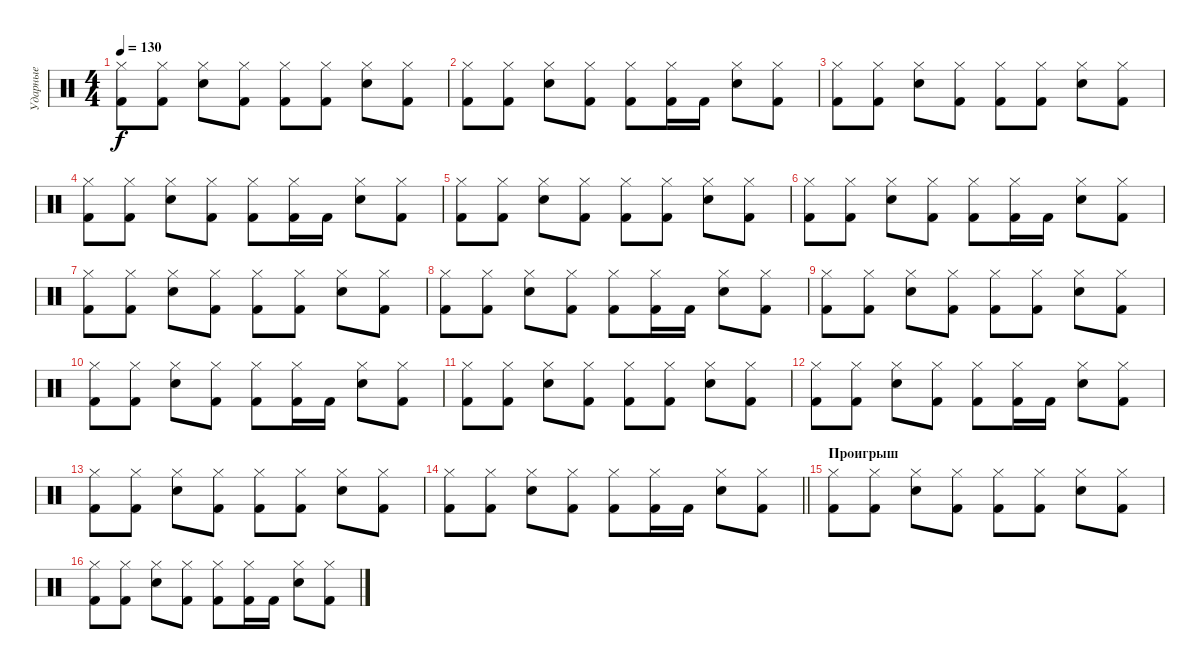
\track ("Ударные" "Ударные") {instrument percussion}
\staff {score}
\articulation defaults
\ts (4 4)
\tempo 130
\clef neutral
\ks c
("Hi-Hat (closed)" "Kick (hit) 2").8{dy f} ("Hi-Hat (closed)" "Kick (hit) 2").8 ("Hi-Hat (closed)" "Snare (hit) 2").8 ("Hi-Hat (closed)" "Kick (hit) 2").8 ("Hi-Hat (closed)" "Kick (hit) 2").8 ("Hi-Hat (closed)" "Kick (hit) 2").8 ("Hi-Hat (closed)" "Snare (hit) 2").8 ("Hi-Hat (closed)" "Kick (hit) 2").8 |
("Hi-Hat (closed)" "Kick (hit) 2").8 ("Hi-Hat (closed)" "Kick (hit) 2").8 ("Hi-Hat (closed)" "Snare (hit) 2").8 ("Hi-Hat (closed)" "Kick (hit) 2").8 ("Hi-Hat (closed)" "Kick (hit) 2").8 ("Hi-Hat (closed)" "Kick (hit) 2").16 "Kick (hit) 2".16 ("Hi-Hat (closed)" "Snare (hit) 2").8 ("Hi-Hat (closed)" "Kick (hit) 2").8 |
("Hi-Hat (closed)" "Kick (hit) 2").8 ("Hi-Hat (closed)" "Kick (hit) 2").8 ("Hi-Hat (closed)" "Snare (hit) 2").8 ("Hi-Hat (closed)" "Kick (hit) 2").8 ("Hi-Hat (closed)" "Kick (hit) 2").8 ("Hi-Hat (closed)" "Kick (hit) 2").8 ("Hi-Hat (closed)" "Snare (hit) 2").8 ("Hi-Hat (closed)" "Kick (hit) 2").8 |
("Hi-Hat (closed)" "Kick (hit) 2").8 ("Hi-Hat (closed)" "Kick (hit) 2").8 ("Hi-Hat (closed)" "Snare (hit) 2").8 ("Hi-Hat (closed)" "Kick (hit) 2").8 ("Hi-Hat (closed)" "Kick (hit) 2").8 ("Hi-Hat (closed)" "Kick (hit) 2").16 "Kick (hit) 2".16 ("Hi-Hat (closed)" "Snare (hit) 2").8 ("Hi-Hat (closed)" "Kick (hit) 2").8 |
("Hi-Hat (closed)" "Kick (hit) 2").8 ("Hi-Hat (closed)" "Kick (hit) 2").8 ("Hi-Hat (closed)" "Snare (hit) 2").8 ("Hi-Hat (closed)" "Kick (hit) 2").8 ("Hi-Hat (closed)" "Kick (hit) 2").8 ("Hi-Hat (closed)" "Kick (hit) 2").8 ("Hi-Hat (closed)" "Snare (hit) 2").8 ("Hi-Hat (closed)" "Kick (hit) 2").8 |
("Hi-Hat (closed)" "Kick (hit) 2").8 ("Hi-Hat (closed)" "Kick (hit) 2").8 ("Hi-Hat (closed)" "Snare (hit) 2").8 ("Hi-Hat (closed)" "Kick (hit) 2").8 ("Hi-Hat (closed)" "Kick (hit) 2").8 ("Hi-Hat (closed)" "Kick (hit) 2").16 "Kick (hit) 2".16 ("Hi-Hat (closed)" "Snare (hit) 2").8 ("Hi-Hat (closed)" "Kick (hit) 2").8 |
("Hi-Hat (closed)" "Kick (hit) 2").8 ("Hi-Hat (closed)" "Kick (hit) 2").8 ("Hi-Hat (closed)" "Snare (hit) 2").8 ("Hi-Hat (closed)" "Kick (hit) 2").8 ("Hi-Hat (closed)" "Kick (hit) 2").8 ("Hi-Hat (closed)" "Kick (hit) 2").8 ("Hi-Hat (closed)" "Snare (hit) 2").8 ("Hi-Hat (closed)" "Kick (hit) 2").8 |
("Hi-Hat (closed)" "Kick (hit) 2").8 ("Hi-Hat (closed)" "Kick (hit) 2").8 ("Hi-Hat (closed)" "Snare (hit) 2").8 ("Hi-Hat (closed)" "Kick (hit) 2").8 ("Hi-Hat (closed)" "Kick (hit) 2").8 ("Hi-Hat (closed)" "Kick (hit) 2").16 "Kick (hit) 2".16 ("Hi-Hat (closed)" "Snare (hit) 2").8 ("Hi-Hat (closed)" "Kick (hit) 2").8 |
("Hi-Hat (closed)" "Kick (hit) 2").8 ("Hi-Hat (closed)" "Kick (hit) 2").8 ("Hi-Hat (closed)" "Snare (hit) 2").8 ("Hi-Hat (closed)" "Kick (hit) 2").8 ("Hi-Hat (closed)" "Kick (hit) 2").8 ("Hi-Hat (closed)" "Kick (hit) 2").8 ("Hi-Hat (closed)" "Snare (hit) 2").8 ("Hi-Hat (closed)" "Kick (hit) 2").8 |
("Hi-Hat (closed)" "Kick (hit) 2").8 ("Hi-Hat (closed)" "Kick (hit) 2").8 ("Hi-Hat (closed)" "Snare (hit) 2").8 ("Hi-Hat (closed)" "Kick (hit) 2").8 ("Hi-Hat (closed)" "Kick (hit) 2").8 ("Hi-Hat (closed)" "Kick (hit) 2").16 "Kick (hit) 2".16 ("Hi-Hat (closed)" "Snare (hit) 2").8 ("Hi-Hat (closed)" "Kick (hit) 2").8 |
("Hi-Hat (closed)" "Kick (hit) 2").8 ("Hi-Hat (closed)" "Kick (hit) 2").8 ("Hi-Hat (closed)" "Snare (hit) 2").8 ("Hi-Hat (closed)" "Kick (hit) 2").8 ("Hi-Hat (closed)" "Kick (hit) 2").8 ("Hi-Hat (closed)" "Kick (hit) 2").8 ("Hi-Hat (closed)" "Snare (hit) 2").8 ("Hi-Hat (closed)" "Kick (hit) 2").8 |
("Hi-Hat (closed)" "Kick (hit) 2").8 ("Hi-Hat (closed)" "Kick (hit) 2").8 ("Hi-Hat (closed)" "Snare (hit) 2").8 ("Hi-Hat (closed)" "Kick (hit) 2").8 ("Hi-Hat (closed)" "Kick (hit) 2").8 ("Hi-Hat (closed)" "Kick (hit) 2").16 "Kick (hit) 2".16 ("Hi-Hat (closed)" "Snare (hit) 2").8 ("Hi-Hat (closed)" "Kick (hit) 2").8 |
("Hi-Hat (closed)" "Kick (hit) 2").8 ("Hi-Hat (closed)" "Kick (hit) 2").8 ("Hi-Hat (closed)" "Snare (hit) 2").8 ("Hi-Hat (closed)" "Kick (hit) 2").8 ("Hi-Hat (closed)" "Kick (hit) 2").8 ("Hi-Hat (closed)" "Kick (hit) 2").8 ("Hi-Hat (closed)" "Snare (hit) 2").8 ("Hi-Hat (closed)" "Kick (hit) 2").8 |
\barLineRight lightlight
("Hi-Hat (closed)" "Kick (hit) 2").8 ("Hi-Hat (closed)" "Kick (hit) 2").8 ("Hi-Hat (closed)" "Snare (hit) 2").8 ("Hi-Hat (closed)" "Kick (hit) 2").8 ("Hi-Hat (closed)" "Kick (hit) 2").8 ("Hi-Hat (closed)" "Kick (hit) 2").16 "Kick (hit) 2".16 ("Hi-Hat (closed)" "Snare (hit) 2").8 ("Hi-Hat (closed)" "Kick (hit) 2").8 |
\section ("" "Проигрыш")
("Hi-Hat (closed)" "Kick (hit) 2").8 ("Hi-Hat (closed)" "Kick (hit) 2").8 ("Hi-Hat (closed)" "Snare (hit) 2").8 ("Hi-Hat (closed)" "Kick (hit) 2").8 ("Hi-Hat (closed)" "Kick (hit) 2").8 ("Hi-Hat (closed)" "Kick (hit) 2").8 ("Hi-Hat (closed)" "Snare (hit) 2").8 ("Hi-Hat (closed)" "Kick (hit) 2").8 |
("Hi-Hat (closed)" "Kick (hit) 2").8 ("Hi-Hat (closed)" "Kick (hit) 2").8 ("Hi-Hat (closed)" "Snare (hit) 2").8 ("Hi-Hat (closed)" "Kick (hit) 2").8 ("Hi-Hat (closed)" "Kick (hit) 2").8 ("Hi-Hat (closed)" "Kick (hit) 2").16 "Kick (hit) 2".16 ("Hi-Hat (closed)" "Snare (hit) 2").8 ("Hi-Hat (closed)" "Kick (hit) 2").8
